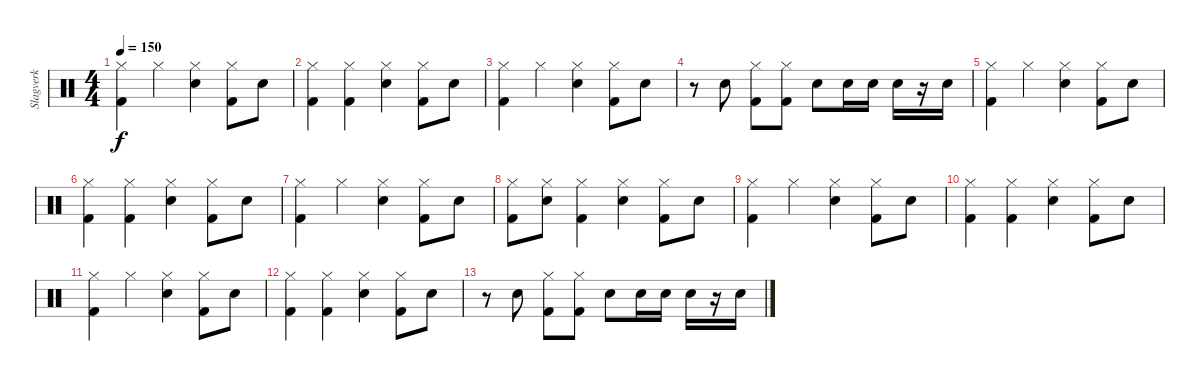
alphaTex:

\track ("Slagverk" "Slagverk") {instrument percussion}
\staff {score}
\articulation defaults
\ts (4 4)
\tempo 150
\clef neutral
\ks c
("Hi-Hat (closed)" "Kick (hit) 2").4{dy f} "Hi-Hat (closed)".4 ("Hi-Hat (closed)" "Electric Snare (hit)").4 ("Hi-Hat (closed)" "Kick (hit) 2").8 "Electric Snare (hit)".8 |
("Hi-Hat (closed)" "Kick (hit) 2").4 ("Hi-Hat (closed)" "Kick (hit) 2").4 ("Hi-Hat (closed)" "Electric Snare (hit)").4 ("Hi-Hat (closed)" "Kick (hit) 2").8 "Electric Snare (hit)".8 |
("Hi-Hat (closed)" "Kick (hit) 2").4 "Hi-Hat (closed)".4 ("Hi-Hat (closed)" "Electric Snare (hit)").4 ("Hi-Hat (closed)" "Kick (hit) 2").8 "Electric Snare (hit)".8 |
r.8 "Electric Snare (hit)".8 ("Hi-Hat (closed)" "Kick (hit) 2").8 ("Hi-Hat (closed)" "Kick (hit) 2").8 "Electric Snare (hit)".8 "Electric Snare (hit)".16 "Electric Snare (hit)".16 "Electric Snare (hit)".16 r.16 "Electric Snare (hit)".16 |
("Hi-Hat (closed)" "Kick (hit) 2").4 "Hi-Hat (closed)".4 ("Hi-Hat (closed)" "Electric Snare (hit)").4 ("Hi-Hat (closed)" "Kick (hit) 2").8 "Electric Snare (hit)".8 |
("Hi-Hat (closed)" "Kick (hit) 2").4 ("Hi-Hat (closed)" "Kick (hit) 2").4 ("Hi-Hat (closed)" "Electric Snare (hit)").4 ("Hi-Hat (closed)" "Kick (hit) 2").8 "Electric Snare (hit)".8 |
("Hi-Hat (closed)" "Kick (hit) 2").4 "Hi-Hat (closed)".4 ("Hi-Hat (closed)" "Electric Snare (hit)").4 ("Hi-Hat (closed)" "Kick (hit) 2").8 "Electric Snare (hit)".8 |
("Hi-Hat (closed)" "Kick (hit) 2").8 ("Hi-Hat (closed)" "Electric Snare (hit)").8 ("Hi-Hat (closed)" "Kick (hit) 2").4 ("Hi-Hat (closed)" "Electric Snare (hit)").4 ("Hi-Hat (closed)" "Kick (hit) 2").8 "Electric Snare (hit)".8 |
("Hi-Hat (closed)" "Kick (hit) 2").4 "Hi-Hat (closed)".4 ("Hi-Hat (closed)" "Electric Snare (hit)").4 ("Hi-Hat (closed)" "Kick (hit) 2").8 "Electric Snare (hit)".8 |
("Hi-Hat (closed)" "Kick (hit) 2").4 ("Hi-Hat (closed)" "Kick (hit) 2").4 ("Hi-Hat (closed)" "Electric Snare (hit)").4 ("Hi-Hat (closed)" "Kick (hit) 2").8 "Electric Snare (hit)".8 |
("Hi-Hat (closed)" "Kick (hit) 2").4 "Hi-Hat (closed)".4 ("Hi-Hat (closed)" "Electric Snare (hit)").4 ("Hi-Hat (closed)" "Kick (hit) 2").8 "Electric Snare (hit)".8 |
("Hi-Hat (closed)" "Kick (hit) 2").4 ("Hi-Hat (closed)" "Kick (hit) 2").4 ("Hi-Hat (closed)" "Electric Snare (hit)").4 ("Hi-Hat (closed)" "Kick (hit) 2").8 "Electric Snare (hit)".8 |
r.8 "Electric Snare (hit)".8 ("Hi-Hat (closed)" "Kick (hit) 2").8 ("Hi-Hat (closed)" "Kick (hit) 2").8 "Electric Snare (hit)".8 "Electric Snare (hit)".16 "Electric Snare (hit)".16 "Electric Snare (hit)".16 r.16 "Electric Snare (hit)".16
